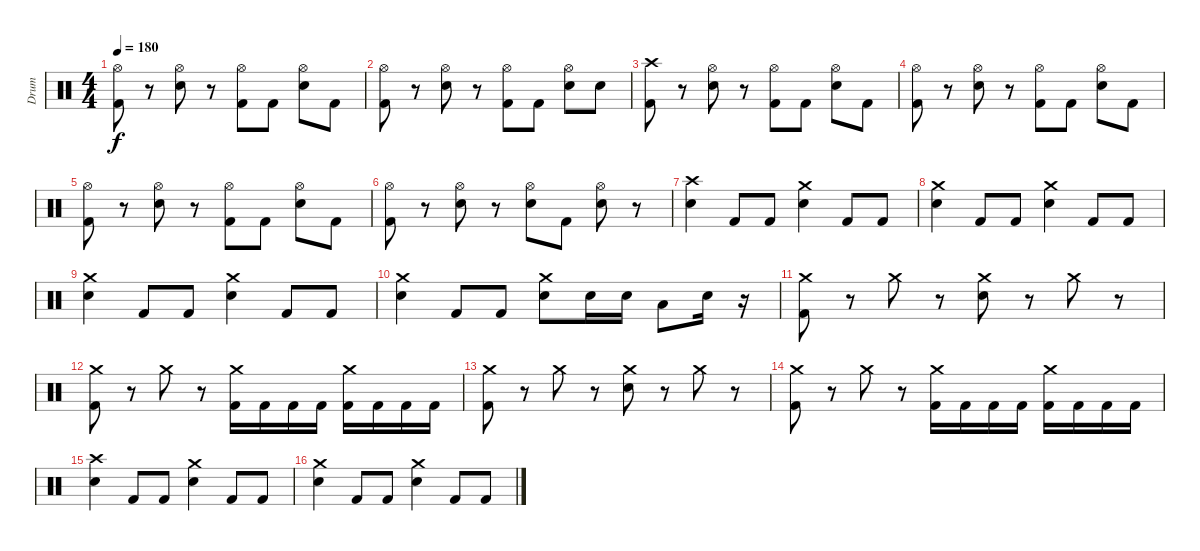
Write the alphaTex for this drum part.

\track ("Drum" "Drum") {instrument percussion}
\staff {score}
\articulation defaults
\ts (4 4)
\tempo 180
\clef neutral
\ks c
("Hi-Hat (open)" "Kick (hit) 2").8{dy f} r.8 ("Hi-Hat (open)" "Electric Snare (hit)").8 r.8 ("Hi-Hat (open)" "Kick (hit) 2").8 "Kick (hit) 2".8 ("Hi-Hat (open)" "Electric Snare (hit)").8 "Kick (hit) 2".8 |
("Hi-Hat (open)" "Kick (hit) 2").8 r.8 ("Hi-Hat (open)" "Electric Snare (hit)").8 r.8 ("Hi-Hat (open)" "Kick (hit) 2").8 "Kick (hit) 2".8 ("Hi-Hat (open)" "Electric Snare (hit)").8 "Electric Snare (hit)".8 |
("Crash high (hit)" "Kick (hit) 2").8 r.8 ("Hi-Hat (open)" "Electric Snare (hit)").8 r.8 ("Hi-Hat (open)" "Kick (hit) 2").8 "Kick (hit) 2".8 ("Hi-Hat (open)" "Electric Snare (hit)").8 "Kick (hit) 2".8 |
("Hi-Hat (open)" "Kick (hit) 2").8 r.8 ("Hi-Hat (open)" "Electric Snare (hit)").8 r.8 ("Hi-Hat (open)" "Kick (hit) 2").8 "Kick (hit) 2".8 ("Hi-Hat (open)" "Electric Snare (hit)").8 "Kick (hit) 2".8 |
("Hi-Hat (open)" "Kick (hit) 2").8 r.8 ("Hi-Hat (open)" "Electric Snare (hit)").8 r.8 ("Hi-Hat (open)" "Kick (hit) 2").8 "Kick (hit) 2".8 ("Hi-Hat (open)" "Electric Snare (hit)").8 "Kick (hit) 2".8 |
("Hi-Hat (open)" "Kick (hit) 2").8 r.8 ("Hi-Hat (open)" "Electric Snare (hit)").8 r.8 ("Hi-Hat (open)" "Electric Snare (hit)").8 "Kick (hit) 2".8 ("Hi-Hat (open)" "Electric Snare (hit)").8 r.8 |
("Crash high (hit)" "Electric Snare (hit)").4 "Kick (hit) 2".8 "Kick (hit) 2".8 ("Crash medium (hit)" "Electric Snare (hit)").4 "Kick (hit) 2".8 "Kick (hit) 2".8 |
("Crash medium (hit)" "Electric Snare (hit)").4 "Kick (hit) 2".8 "Kick (hit) 2".8 ("Crash medium (hit)" "Electric Snare (hit)").4 "Kick (hit) 2".8 "Kick (hit) 2".8 |
("Crash medium (hit)" "Electric Snare (hit)").4 "Kick (hit) 2".8 "Kick (hit) 2".8 ("Crash medium (hit)" "Electric Snare (hit)").4 "Kick (hit) 2".8 "Kick (hit) 2".8 |
("Crash medium (hit)" "Electric Snare (hit)").4 "Kick (hit) 2".8 "Kick (hit) 2".8 ("Crash medium (hit)" "Electric Snare (hit)").8 "Electric Snare (hit)".16 "Electric Snare (hit)".16 "Low Tom (hit)".8 "Electric Snare (hit)".16 r.16 |
("Crash medium (hit)" "Kick (hit) 2").8 r.8 "Crash medium (hit)".8 r.8 ("Crash medium (hit)" "Electric Snare (hit)").8 r.8 "Crash medium (hit)".8 r.8 |
("Crash medium (hit)" "Kick (hit) 2").8 r.8 "Crash medium (hit)".8 r.8 ("Crash medium (hit)" "Kick (hit) 2").16 "Kick (hit) 2".16 "Kick (hit) 2".16 "Kick (hit) 2".16 ("Crash medium (hit)" "Kick (hit) 2").16 "Kick (hit) 2".16 "Kick (hit) 2".16 "Kick (hit) 2".16 |
("Crash medium (hit)" "Kick (hit) 2").8 r.8 "Crash medium (hit)".8 r.8 ("Crash medium (hit)" "Electric Snare (hit)").8 r.8 "Crash medium (hit)".8 r.8 |
("Crash medium (hit)" "Kick (hit) 2").8 r.8 "Crash medium (hit)".8 r.8 ("Crash medium (hit)" "Kick (hit) 2").16 "Kick (hit) 2".16 "Kick (hit) 2".16 "Kick (hit) 2".16 ("Crash medium (hit)" "Kick (hit) 2").16 "Kick (hit) 2".16 "Kick (hit) 2".16 "Kick (hit) 2".16 |
("Crash high (hit)" "Electric Snare (hit)").4 "Kick (hit) 2".8 "Kick (hit) 2".8 ("Crash medium (hit)" "Electric Snare (hit)").4 "Kick (hit) 2".8 "Kick (hit) 2".8 |
("Crash medium (hit)" "Electric Snare (hit)").4 "Kick (hit) 2".8 "Kick (hit) 2".8 ("Crash medium (hit)" "Electric Snare (hit)").4 "Kick (hit) 2".8 "Kick (hit) 2".8
